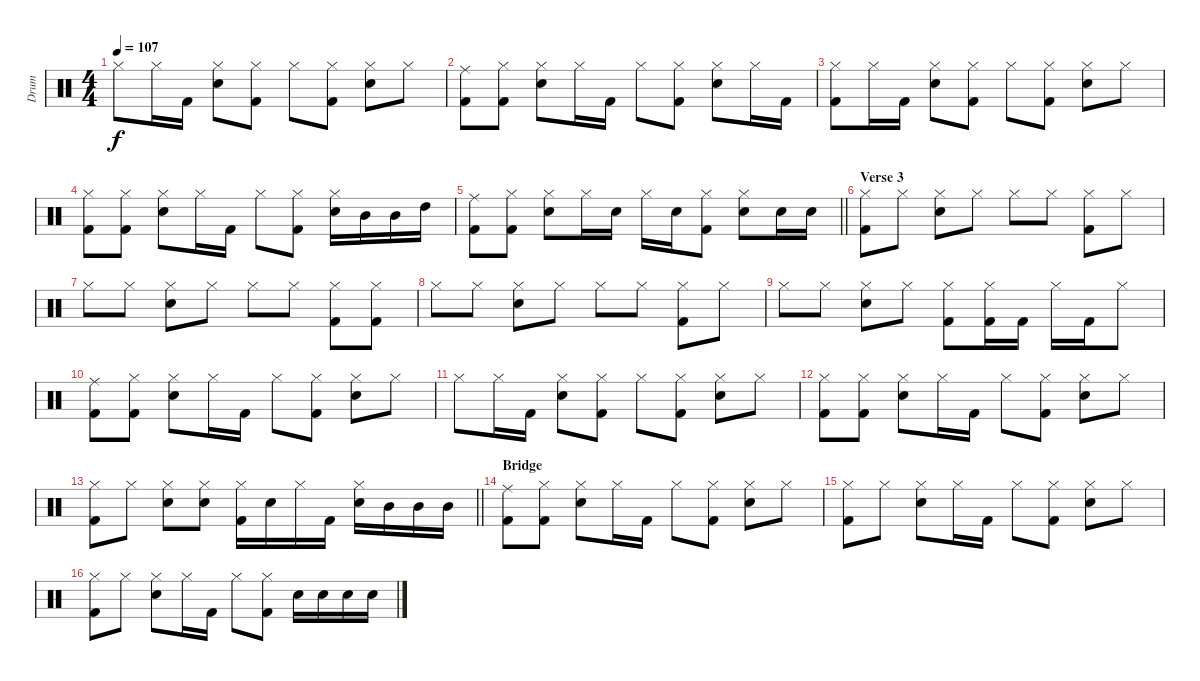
\track ("Drum" "Drum") {instrument percussion}
\staff {score}
\articulation defaults
\ts (4 4)
\tempo 107
\clef neutral
\ks c "Hi-Hat (closed)".8{dy f} "Hi-Hat (closed)".16 "Kick (hit) 2".16
("Hi-Hat (closed)" "Snare (hit) 2").8 ("Hi-Hat (closed)" "Kick (hit) 2").8 "Hi-Hat (closed)".8 ("Hi-Hat (closed)" "Kick (hit) 2").8 ("Hi-Hat (closed)" "Snare (hit) 2").8 "Hi-Hat (closed)".8 |
("Ride (middle)" "Kick (hit) 2").8 ("Hi-Hat (closed)" "Kick (hit) 2").8 ("Hi-Hat (closed)" "Snare (hit) 2").8 "Hi-Hat (closed)".16 "Kick (hit) 2".16 "Hi-Hat (closed)".8 ("Hi-Hat (closed)" "Kick (hit) 2").8 ("Hi-Hat (closed)" "Snare (hit) 2").8 "Hi-Hat (closed)".16 "Kick (hit) 2".16 |
("Hi-Hat (closed)" "Kick (hit) 2").8 "Hi-Hat (closed)".16 "Kick (hit) 2".16 ("Hi-Hat (closed)" "Snare (hit) 2").8 ("Hi-Hat (closed)" "Kick (hit) 2").8 "Hi-Hat (closed)".8 ("Hi-Hat (closed)" "Kick (hit) 2").8 ("Hi-Hat (closed)" "Snare (hit) 2").8 "Hi-Hat (closed)".8 |
("Hi-Hat (closed)" "Kick (hit) 2").8 ("Hi-Hat (closed)" "Kick (hit) 2").8 ("Hi-Hat (closed)" "Snare (hit) 2").8 "Hi-Hat (closed)".16 "Kick (hit) 2".16 "Hi-Hat (closed)".8 ("Hi-Hat (closed)" "Kick (hit) 2").8 ("Hi-Hat (closed)" "Snare (hit) 2").16 "Mid Tom (hit)".16 "Mid Tom (hit)".16 "High Tom (hit)".16 |
\barLineRight lightlight
("Ride (middle)" "Kick (hit) 2").8 ("Hi-Hat (closed)" "Kick (hit) 2").8 ("Hi-Hat (closed)" "Snare (hit) 2").8 "Hi-Hat (closed)".16 "Snare (hit) 2".16 "Hi-Hat (closed)".16 "Snare (hit) 2".16 ("Hi-Hat (closed)" "Kick (hit) 2").8 ("Hi-Hat (closed)" "Snare (hit) 2").8 "Snare (hit) 2".16 "Snare (hit) 2".16 |
\section ("" "Verse 3")
("Hi-Hat (closed)" "Kick (hit) 2").8 "Hi-Hat (closed)".8 ("Hi-Hat (closed)" "Snare (hit) 2").8 "Hi-Hat (closed)".8 "Hi-Hat (closed)".8 "Hi-Hat (closed)".8 ("Hi-Hat (closed)" "Kick (hit) 2").8 "Hi-Hat (closed)".8 |
"Hi-Hat (closed)".8 "Hi-Hat (closed)".8 ("Hi-Hat (closed)" "Snare (hit) 2").8 "Hi-Hat (closed)".8 "Hi-Hat (closed)".8 "Hi-Hat (closed)".8 ("Hi-Hat (closed)" "Kick (hit) 2").8 ("Hi-Hat (closed)" "Kick (hit) 2").8 |
"Hi-Hat (closed)".8 "Hi-Hat (closed)".8 ("Hi-Hat (closed)" "Snare (hit) 2").8 "Hi-Hat (closed)".8 "Hi-Hat (closed)".8 "Hi-Hat (closed)".8 ("Hi-Hat (closed)" "Kick (hit) 2").8 "Hi-Hat (closed)".8 |
"Hi-Hat (closed)".8 "Hi-Hat (closed)".8 ("Hi-Hat (closed)" "Snare (hit) 2").8 "Hi-Hat (closed)".8 ("Hi-Hat (closed)" "Kick (hit) 2").8 ("Hi-Hat (closed)" "Kick (hit) 2").16 "Kick (hit) 2".16 "Hi-Hat (closed)".16 "Kick (hit) 2".16 "Hi-Hat (closed)".8 |
("Ride (middle)" "Kick (hit) 2").8 ("Hi-Hat (closed)" "Kick (hit) 2").8 ("Hi-Hat (closed)" "Snare (hit) 2").8 "Hi-Hat (closed)".16 "Kick (hit) 2".16 "Hi-Hat (closed)".8 ("Hi-Hat (closed)" "Kick (hit) 2").8 ("Hi-Hat (closed)" "Snare (hit) 2").8 "Hi-Hat (closed)".8 |
"Hi-Hat (closed)".8 "Hi-Hat (closed)".16 "Kick (hit) 2".16 ("Hi-Hat (closed)" "Snare (hit) 2").8 ("Hi-Hat (closed)" "Kick (hit) 2").8 "Hi-Hat (closed)".8 ("Hi-Hat (closed)" "Kick (hit) 2").8 ("Hi-Hat (closed)" "Snare (hit) 2").8 "Hi-Hat (closed)".8 |
("Hi-Hat (closed)" "Kick (hit) 2").8 ("Hi-Hat (closed)" "Kick (hit) 2").8 ("Hi-Hat (closed)" "Snare (hit) 2").8 "Hi-Hat (closed)".16 "Kick (hit) 2".16 "Hi-Hat (closed)".8 ("Hi-Hat (closed)" "Kick (hit) 2").8 ("Hi-Hat (closed)" "Snare (hit) 2").8 "Hi-Hat (closed)".8 |
\barLineRight lightlight
("Hi-Hat (closed)" "Kick (hit) 2").8 "Hi-Hat (closed)".8 ("Hi-Hat (closed)" "Snare (hit) 2").8 ("Hi-Hat (closed)" "Snare (hit) 2").8 ("Hi-Hat (closed)" "Kick (hit) 2").16 "Snare (hit) 2".16 "Hi-Hat (closed)".16 "Kick (hit) 2".16 ("Hi-Hat (closed)" "Snare (hit) 2").16 "Mid Tom (hit)".16 "Mid Tom (hit)".16 "Mid Tom (hit)".16 |
\section ("" "Bridge")
("Ride (middle)" "Kick (hit) 2").8 ("Hi-Hat (closed)" "Kick (hit) 2").8 ("Hi-Hat (closed)" "Snare (hit) 2").8 "Hi-Hat (closed)".16 "Kick (hit) 2".16 "Hi-Hat (closed)".8 ("Hi-Hat (closed)" "Kick (hit) 2").8 ("Hi-Hat (closed)" "Snare (hit) 2").8 "Hi-Hat (closed)".8 |
("Hi-Hat (closed)" "Kick (hit) 2").8 "Hi-Hat (closed)".8 ("Hi-Hat (closed)" "Snare (hit) 2").8 "Hi-Hat (closed)".16 "Kick (hit) 2".16 "Hi-Hat (closed)".8 ("Hi-Hat (closed)" "Kick (hit) 2").8 ("Hi-Hat (closed)" "Snare (hit) 2").8 "Hi-Hat (closed)".8 |
("Hi-Hat (closed)" "Kick (hit) 2").8 "Hi-Hat (closed)".8 ("Hi-Hat (closed)" "Snare (hit) 2").8 "Hi-Hat (closed)".16 "Kick (hit) 2".16 "Hi-Hat (closed)".8 ("Hi-Hat (closed)" "Kick (hit) 2").8 "Snare (hit) 2".16 "Snare (hit) 2".16 "Snare (hit) 2".16 "Snare (hit) 2".16
